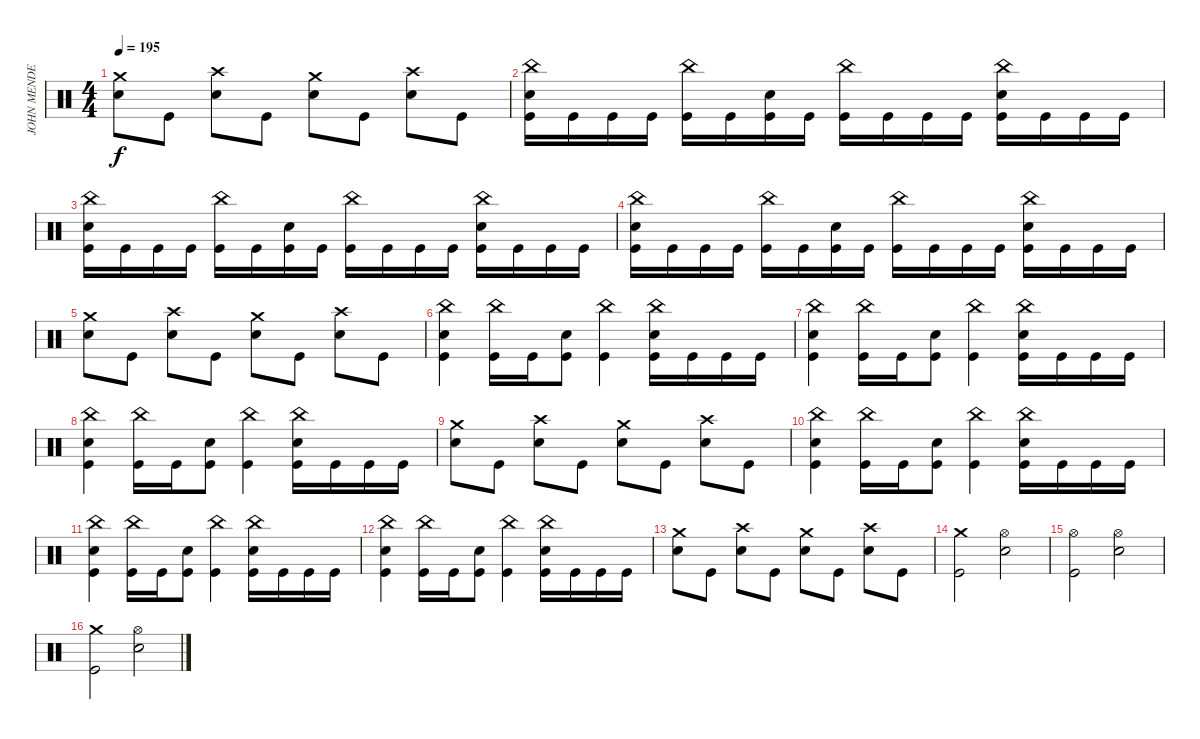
\track ("JOHN MENDESSSSSSS" "JOHN MENDE") {instrument percussion}
\staff {score}
\articulation defaults
\ts (4 4)
\tempo 195
\clef neutral
\ks c
("Snare (hit) 2" "Crash medium (hit)").8{dy f} "Kick (hit)".8 ("Snare (hit) 2" "Crash high (hit)").8 "Kick (hit)".8 ("Snare (hit) 2" "Crash medium (hit)").8 "Kick (hit)".8 ("Snare (hit) 2" "Crash high (hit)").8 "Kick (hit)".8 |
("Kick (hit)" "Snare (hit) 2" "China (hit)").16 "Kick (hit)".16 "Kick (hit)".16 "Kick (hit)".16 ("Kick (hit)" "China (hit)").16 "Kick (hit)".16 ("Kick (hit)" "Snare (hit) 2").16 "Kick (hit)".16 ("Kick (hit)" "China (hit)").16 "Kick (hit)".16 "Kick (hit)".16 "Kick (hit)".16 ("Kick (hit)" "Snare (hit) 2" "China (hit)").16 "Kick (hit)".16 "Kick (hit)".16 "Kick (hit)".16 |
("Kick (hit)" "Snare (hit) 2" "China (hit)").16 "Kick (hit)".16 "Kick (hit)".16 "Kick (hit)".16 ("Kick (hit)" "China (hit)").16 "Kick (hit)".16 ("Kick (hit)" "Snare (hit) 2").16 "Kick (hit)".16 ("Kick (hit)" "China (hit)").16 "Kick (hit)".16 "Kick (hit)".16 "Kick (hit)".16 ("Kick (hit)" "Snare (hit) 2" "China (hit)").16 "Kick (hit)".16 "Kick (hit)".16 "Kick (hit)".16 |
("Kick (hit)" "Snare (hit) 2" "China (hit)").16 "Kick (hit)".16 "Kick (hit)".16 "Kick (hit)".16 ("Kick (hit)" "China (hit)").16 "Kick (hit)".16 ("Kick (hit)" "Snare (hit) 2").16 "Kick (hit)".16 ("Kick (hit)" "China (hit)").16 "Kick (hit)".16 "Kick (hit)".16 "Kick (hit)".16 ("Kick (hit)" "Snare (hit) 2" "China (hit)").16 "Kick (hit)".16 "Kick (hit)".16 "Kick (hit)".16 |
("Snare (hit) 2" "Crash medium (hit)").8 "Kick (hit)".8 ("Snare (hit) 2" "Crash high (hit)").8 "Kick (hit)".8 ("Snare (hit) 2" "Crash medium (hit)").8 "Kick (hit)".8 ("Snare (hit) 2" "Crash high (hit)").8 "Kick (hit)".8 |
("Kick (hit)" "Snare (hit) 2" "China (hit)").4 ("Kick (hit)" "China (hit)").16 "Kick (hit)".16 ("Kick (hit)" "Snare (hit) 2").8 ("Kick (hit)" "China (hit)").4 ("Kick (hit)" "Snare (hit) 2" "China (hit)").16 "Kick (hit)".16 "Kick (hit)".16 "Kick (hit)".16 |
("Kick (hit)" "Snare (hit) 2" "China (hit)").4 ("Kick (hit)" "China (hit)").16 "Kick (hit)".16 ("Kick (hit)" "Snare (hit) 2").8 ("Kick (hit)" "China (hit)").4 ("Kick (hit)" "Snare (hit) 2" "China (hit)").16 "Kick (hit)".16 "Kick (hit)".16 "Kick (hit)".16 |
("Kick (hit)" "Snare (hit) 2" "China (hit)").4 ("Kick (hit)" "China (hit)").16 "Kick (hit)".16 ("Kick (hit)" "Snare (hit) 2").8 ("Kick (hit)" "China (hit)").4 ("Kick (hit)" "Snare (hit) 2" "China (hit)").16 "Kick (hit)".16 "Kick (hit)".16 "Kick (hit)".16 |
("Snare (hit) 2" "Crash medium (hit)").8 "Kick (hit)".8 ("Snare (hit) 2" "Crash high (hit)").8 "Kick (hit)".8 ("Snare (hit) 2" "Crash medium (hit)").8 "Kick (hit)".8 ("Snare (hit) 2" "Crash high (hit)").8 "Kick (hit)".8 |
("Kick (hit)" "Snare (hit) 2" "China (hit)").4 ("Kick (hit)" "China (hit)").16 "Kick (hit)".16 ("Kick (hit)" "Snare (hit) 2").8 ("Kick (hit)" "China (hit)").4 ("Kick (hit)" "Snare (hit) 2" "China (hit)").16 "Kick (hit)".16 "Kick (hit)".16 "Kick (hit)".16 |
("Kick (hit)" "Snare (hit) 2" "China (hit)").4 ("Kick (hit)" "China (hit)").16 "Kick (hit)".16 ("Kick (hit)" "Snare (hit) 2").8 ("Kick (hit)" "China (hit)").4 ("Kick (hit)" "Snare (hit) 2" "China (hit)").16 "Kick (hit)".16 "Kick (hit)".16 "Kick (hit)".16 |
("Kick (hit)" "Snare (hit) 2" "China (hit)").4 ("Kick (hit)" "China (hit)").16 "Kick (hit)".16 ("Kick (hit)" "Snare (hit) 2").8 ("Kick (hit)" "China (hit)").4 ("Kick (hit)" "Snare (hit) 2" "China (hit)").16 "Kick (hit)".16 "Kick (hit)".16 "Kick (hit)".16 |
("Snare (hit) 2" "Crash medium (hit)").8 "Kick (hit)".8 ("Snare (hit) 2" "Crash high (hit)").8 "Kick (hit)".8 ("Snare (hit) 2" "Crash medium (hit)").8 "Kick (hit)".8 ("Snare (hit) 2" "Crash high (hit)").8 "Kick (hit)".8 |
("Kick (hit)" "Crash medium (hit)").2 ("Snare (hit) 2" "Hi-Hat (open)").2 |
("Kick (hit)" "Hi-Hat (open)").2 ("Snare (hit) 2" "Hi-Hat (open)").2 |
("Kick (hit)" "Crash medium (hit)").2 ("Snare (hit) 2" "Hi-Hat (open)").2
